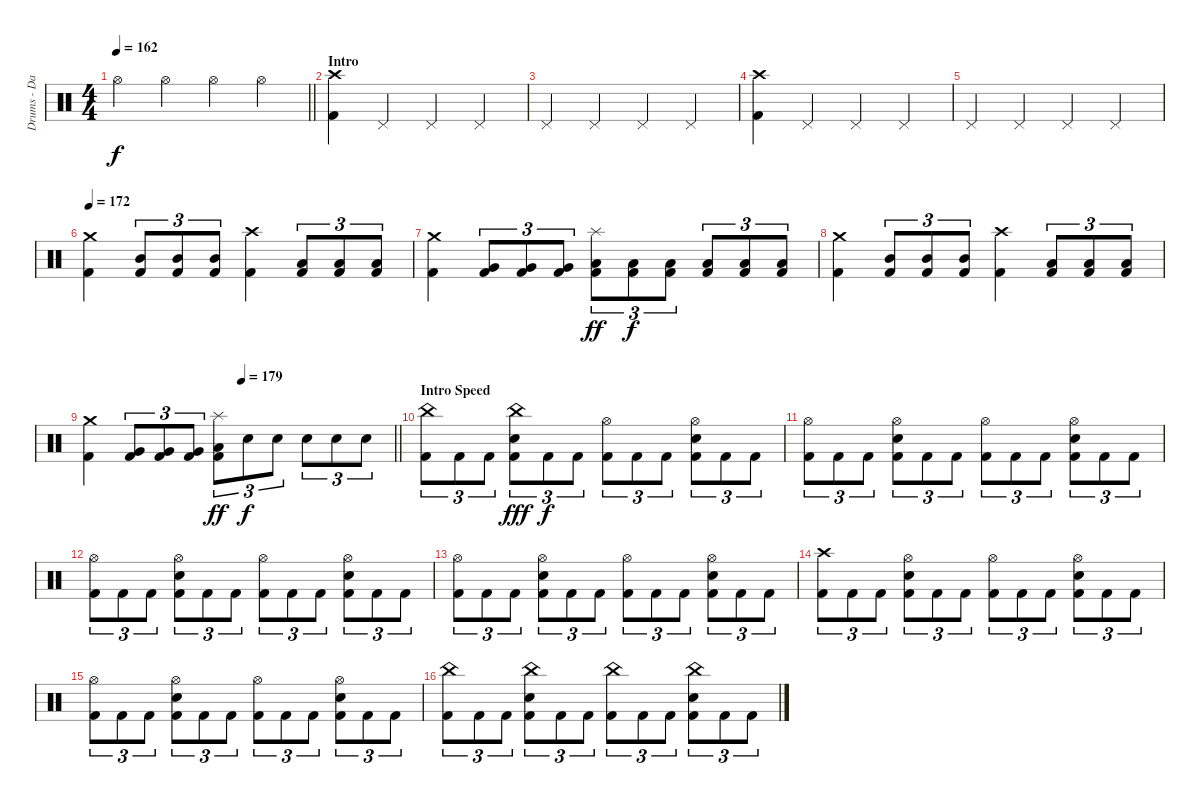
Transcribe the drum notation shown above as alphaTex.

\track ("Drums - Dan Zimmermann" "Drums - Da") {instrument percussion}
\staff {score}
\articulation defaults
\ts (4 4)
\tempo 162
\clef neutral
\barLineRight lightlight
\ks c "Hi-Hat (open)".4{dy f} "Hi-Hat (open)".4 "Hi-Hat (open)".4 "Hi-Hat (open)".4
|
\section ("" "Intro")
("Kick (hit) 2" "Crash high (hit)").4 "Pedal Hi-Hat (hit)".4 "Pedal Hi-Hat (hit)".4 "Pedal Hi-Hat (hit)".4 |
"Pedal Hi-Hat (hit)".4 "Pedal Hi-Hat (hit)".4 "Pedal Hi-Hat (hit)".4 "Pedal Hi-Hat (hit)".4 |
("Kick (hit) 2" "Crash high (hit)").4 "Pedal Hi-Hat (hit)".4 "Pedal Hi-Hat (hit)".4 "Pedal Hi-Hat (hit)".4 |
"Pedal Hi-Hat (hit)".4 "Pedal Hi-Hat (hit)".4 "Pedal Hi-Hat (hit)".4 "Pedal Hi-Hat (hit)".4 |
\tempo 172
("Kick (hit) 2" "Crash medium (hit)").4 ("Kick (hit) 2" "Mid Tom (hit)").8{tu (3 2)} ("Kick (hit) 2" "Mid Tom (hit)").8{tu (3 2)} ("Kick (hit) 2" "Mid Tom (hit)").8{tu (3 2)} ("Kick (hit) 2" "Crash high (hit)").4 ("Kick (hit) 2" "Low Tom (hit)").8{tu (3 2)} ("Kick (hit) 2" "Low Tom (hit)").8{tu (3 2)} ("Kick (hit) 2" "Low Tom (hit)").8{tu (3 2)} |
("Kick (hit) 2" "Crash medium (hit)").4 ("Kick (hit) 2" "Very Low Tom (hit)").8{tu (3 2)} ("Kick (hit) 2" "Very Low Tom (hit)").8{tu (3 2)} ("Kick (hit) 2" "Very Low Tom (hit)").8{tu (3 2)} ("Kick (hit) 2" "Low Floor Tom (hit)" "Splash (hit)").8{tu (3 2) dy ff} ("Kick (hit) 2" "Low Floor Tom (hit)").8{tu (3 2) dy f} ("Kick (hit) 2" "Low Floor Tom (hit)").8{tu (3 2)} ("Kick (hit) 2" "Low Floor Tom (hit)").8{tu (3 2)} ("Kick (hit) 2" "Low Floor Tom (hit)").8{tu (3 2)} ("Kick (hit) 2" "Low Floor Tom (hit)").8{tu (3 2)} |
("Kick (hit) 2" "Crash medium (hit)").4 ("Kick (hit) 2" "Mid Tom (hit)").8{tu (3 2)} ("Kick (hit) 2" "Mid Tom (hit)").8{tu (3 2)} ("Kick (hit) 2" "Mid Tom (hit)").8{tu (3 2)} ("Kick (hit) 2" "Crash high (hit)").4 ("Kick (hit) 2" "Low Tom (hit)").8{tu (3 2)} ("Kick (hit) 2" "Low Tom (hit)").8{tu (3 2)} ("Kick (hit) 2" "Low Tom (hit)").8{tu (3 2)} |
\tempo (179 0.5)
\barLineRight lightlight
("Kick (hit) 2" "Crash medium (hit)").4 ("Kick (hit) 2" "Very Low Tom (hit)").8{tu (3 2)} ("Kick (hit) 2" "Very Low Tom (hit)").8{tu (3 2)} ("Kick (hit) 2" "Very Low Tom (hit)").8{tu (3 2)} ("Kick (hit) 2" "Low Floor Tom (hit)" "Splash (hit)").8{tu (3 2) dy ff} "Electric Snare (hit)".8{tu (3 2) dy f} "Electric Snare (hit)".8{tu (3 2)} "Electric Snare (hit)".8{tu (3 2)} "Electric Snare (hit)".8{tu (3 2)} "Electric Snare (hit)".8{tu (3 2)} |
\section ("" "Intro Speed")
("Kick (hit) 2" "China (hit)").8{tu (3 2)} "Kick (hit) 2".8{tu (3 2)} "Kick (hit) 2".8{tu (3 2)} ("Kick (hit) 2" "Electric Snare (hit)" "China (hit)").8{tu (3 2) dy fff} "Kick (hit) 2".8{tu (3 2) dy f} "Kick (hit) 2".8{tu (3 2)} ("Kick (hit) 2" "Hi-Hat (open)").8{tu (3 2)} "Kick (hit) 2".8{tu (3 2)} "Kick (hit) 2".8{tu (3 2)} ("Kick (hit) 2" "Electric Snare (hit)" "Hi-Hat (open)").8{tu (3 2)} "Kick (hit) 2".8{tu (3 2)} "Kick (hit) 2".8{tu (3 2)} |
("Kick (hit) 2" "Hi-Hat (open)").8{tu (3 2)} "Kick (hit) 2".8{tu (3 2)} "Kick (hit) 2".8{tu (3 2)} ("Kick (hit) 2" "Electric Snare (hit)" "Hi-Hat (open)").8{tu (3 2)} "Kick (hit) 2".8{tu (3 2)} "Kick (hit) 2".8{tu (3 2)} ("Kick (hit) 2" "Hi-Hat (open)").8{tu (3 2)} "Kick (hit) 2".8{tu (3 2)} "Kick (hit) 2".8{tu (3 2)} ("Kick (hit) 2" "Electric Snare (hit)" "Hi-Hat (open)").8{tu (3 2)} "Kick (hit) 2".8{tu (3 2)} "Kick (hit) 2".8{tu (3 2)} |
("Kick (hit) 2" "Hi-Hat (open)").8{tu (3 2)} "Kick (hit) 2".8{tu (3 2)} "Kick (hit) 2".8{tu (3 2)} ("Kick (hit) 2" "Electric Snare (hit)" "Hi-Hat (open)").8{tu (3 2)} "Kick (hit) 2".8{tu (3 2)} "Kick (hit) 2".8{tu (3 2)} ("Kick (hit) 2" "Hi-Hat (open)").8{tu (3 2)} "Kick (hit) 2".8{tu (3 2)} "Kick (hit) 2".8{tu (3 2)} ("Kick (hit) 2" "Electric Snare (hit)" "Hi-Hat (open)").8{tu (3 2)} "Kick (hit) 2".8{tu (3 2)} "Kick (hit) 2".8{tu (3 2)} |
("Kick (hit) 2" "Hi-Hat (open)").8{tu (3 2)} "Kick (hit) 2".8{tu (3 2)} "Kick (hit) 2".8{tu (3 2)} ("Kick (hit) 2" "Electric Snare (hit)" "Hi-Hat (open)").8{tu (3 2)} "Kick (hit) 2".8{tu (3 2)} "Kick (hit) 2".8{tu (3 2)} ("Kick (hit) 2" "Hi-Hat (open)").8{tu (3 2)} "Kick (hit) 2".8{tu (3 2)} "Kick (hit) 2".8{tu (3 2)} ("Kick (hit) 2" "Electric Snare (hit)" "Hi-Hat (open)").8{tu (3 2)} "Kick (hit) 2".8{tu (3 2)} "Kick (hit) 2".8{tu (3 2)} |
("Kick (hit) 2" "Crash high (hit)").8{tu (3 2)} "Kick (hit) 2".8{tu (3 2)} "Kick (hit) 2".8{tu (3 2)} ("Kick (hit) 2" "Electric Snare (hit)" "Hi-Hat (open)").8{tu (3 2)} "Kick (hit) 2".8{tu (3 2)} "Kick (hit) 2".8{tu (3 2)} ("Kick (hit) 2" "Hi-Hat (open)").8{tu (3 2)} "Kick (hit) 2".8{tu (3 2)} "Kick (hit) 2".8{tu (3 2)} ("Kick (hit) 2" "Electric Snare (hit)" "Hi-Hat (open)").8{tu (3 2)} "Kick (hit) 2".8{tu (3 2)} "Kick (hit) 2".8{tu (3 2)} |
("Kick (hit) 2" "Hi-Hat (open)").8{tu (3 2)} "Kick (hit) 2".8{tu (3 2)} "Kick (hit) 2".8{tu (3 2)} ("Kick (hit) 2" "Electric Snare (hit)" "Hi-Hat (open)").8{tu (3 2)} "Kick (hit) 2".8{tu (3 2)} "Kick (hit) 2".8{tu (3 2)} ("Kick (hit) 2" "Hi-Hat (open)").8{tu (3 2)} "Kick (hit) 2".8{tu (3 2)} "Kick (hit) 2".8{tu (3 2)} ("Kick (hit) 2" "Electric Snare (hit)" "Hi-Hat (open)").8{tu (3 2)} "Kick (hit) 2".8{tu (3 2)} "Kick (hit) 2".8{tu (3 2)} |
("Kick (hit) 2" "China (hit)").8{tu (3 2)} "Kick (hit) 2".8{tu (3 2)} "Kick (hit) 2".8{tu (3 2)} ("Kick (hit) 2" "Electric Snare (hit)" "China (hit)").8{tu (3 2)} "Kick (hit) 2".8{tu (3 2)} "Kick (hit) 2".8{tu (3 2)} ("Kick (hit) 2" "China (hit)").8{tu (3 2)} "Kick (hit) 2".8{tu (3 2)} "Kick (hit) 2".8{tu (3 2)} ("Kick (hit) 2" "Electric Snare (hit)" "China (hit)").8{tu (3 2)} "Kick (hit) 2".8{tu (3 2)} "Kick (hit) 2".8{tu (3 2)}
